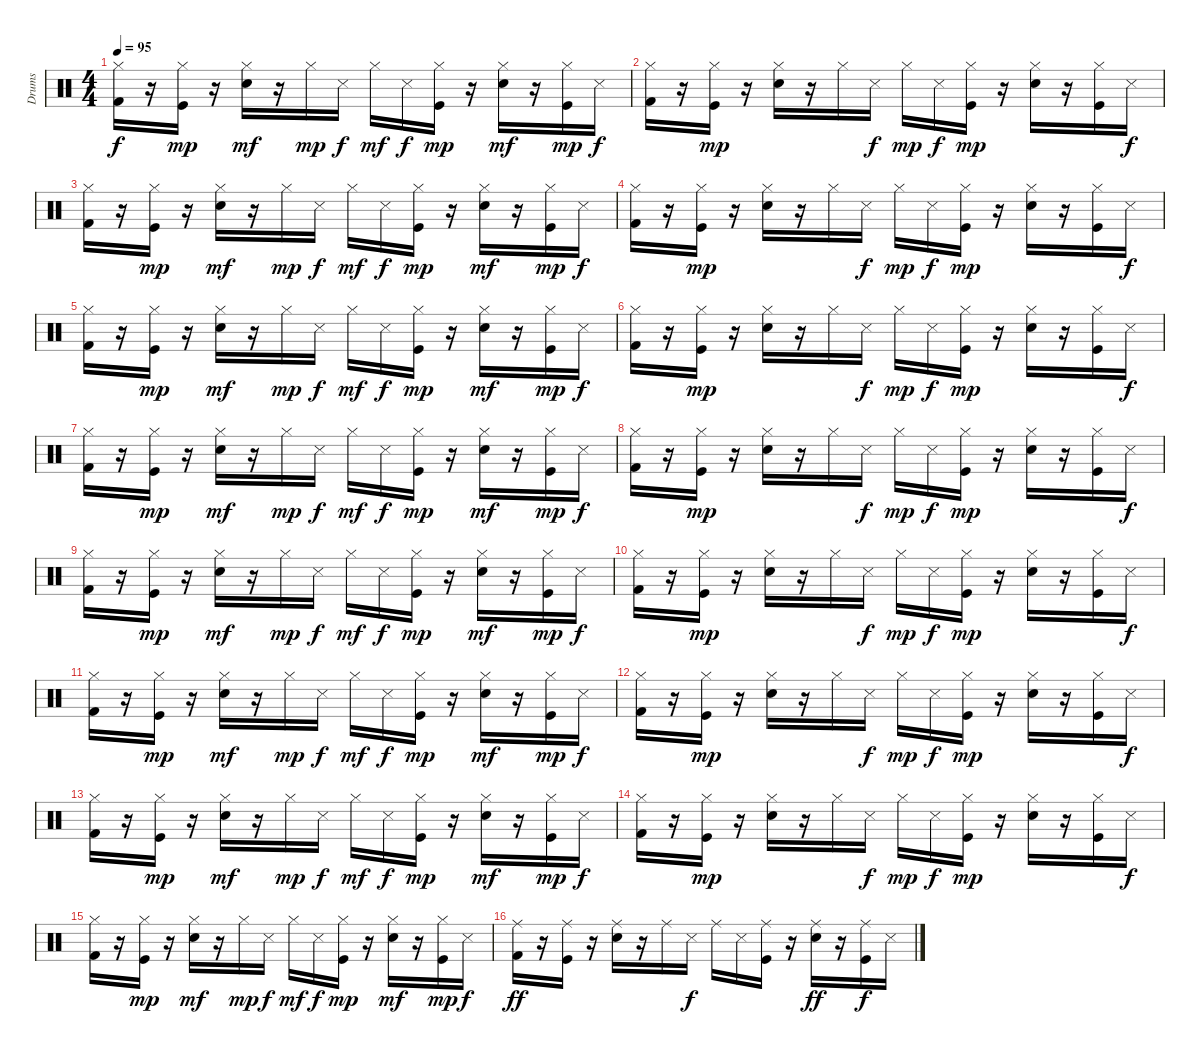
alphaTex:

\track ("Drums" "Drums") {instrument percussion}
\staff {score}
\articulation defaults
\ts (4 4)
\tempo 95
\clef neutral
\ks c
("Kick (hit) 2" "Hi-Hat (closed)").16{dy f} r.16 ("Kick (hit)" "Hi-Hat (closed)").16{dy mp} r.16 ("Snare (hit) 2" "Hi-Hat (closed)").16{dy mf} r.16 "Hi-Hat (closed)".16{dy mp} "Snare (side stick) 3".16{dy f} "Hi-Hat (closed)".16{dy mf} "Snare (side stick) 3".16{dy f} ("Kick (hit)" "Hi-Hat (closed)").16{dy mp} r.16 ("Snare (hit) 2" "Hi-Hat (closed)").16{dy mf} r.16 ("Kick (hit)" "Hi-Hat (closed)").16{dy mp} "Snare (side stick) 3".16{dy f} |
("Kick (hit) 2" "Hi-Hat (closed)").16 r.16 ("Kick (hit)" "Hi-Hat (closed)").16{dy mp} r.16 ("Snare (hit) 2" "Hi-Hat (closed)").16 r.16 "Hi-Hat (closed)".16 "Snare (side stick) 3".16{dy f} "Hi-Hat (closed)".16{dy mp} "Snare (side stick) 3".16{dy f} ("Kick (hit)" "Hi-Hat (closed)").16{dy mp} r.16 ("Snare (hit) 2" "Hi-Hat (closed)").16 r.16 ("Kick (hit)" "Hi-Hat (closed)").16 "Snare (side stick) 3".16{dy f} |
("Kick (hit) 2" "Hi-Hat (closed)").16 r.16 ("Kick (hit)" "Hi-Hat (closed)").16{dy mp} r.16 ("Snare (hit) 2" "Hi-Hat (closed)").16{dy mf} r.16 "Hi-Hat (closed)".16{dy mp} "Snare (side stick) 3".16{dy f} "Hi-Hat (closed)".16{dy mf} "Snare (side stick) 3".16{dy f} ("Kick (hit)" "Hi-Hat (closed)").16{dy mp} r.16 ("Snare (hit) 2" "Hi-Hat (closed)").16{dy mf} r.16 ("Kick (hit)" "Hi-Hat (closed)").16{dy mp} "Snare (side stick) 3".16{dy f} |
("Kick (hit) 2" "Hi-Hat (closed)").16 r.16 ("Kick (hit)" "Hi-Hat (closed)").16{dy mp} r.16 ("Snare (hit) 2" "Hi-Hat (closed)").16 r.16 "Hi-Hat (closed)".16 "Snare (side stick) 3".16{dy f} "Hi-Hat (closed)".16{dy mp} "Snare (side stick) 3".16{dy f} ("Kick (hit)" "Hi-Hat (closed)").16{dy mp} r.16 ("Snare (hit) 2" "Hi-Hat (closed)").16 r.16 ("Kick (hit)" "Hi-Hat (closed)").16 "Snare (side stick) 3".16{dy f} |
("Kick (hit) 2" "Hi-Hat (closed)").16 r.16 ("Kick (hit)" "Hi-Hat (closed)").16{dy mp} r.16 ("Snare (hit) 2" "Hi-Hat (closed)").16{dy mf} r.16 "Hi-Hat (closed)".16{dy mp} "Snare (side stick) 3".16{dy f} "Hi-Hat (closed)".16{dy mf} "Snare (side stick) 3".16{dy f} ("Kick (hit)" "Hi-Hat (closed)").16{dy mp} r.16 ("Snare (hit) 2" "Hi-Hat (closed)").16{dy mf} r.16 ("Kick (hit)" "Hi-Hat (closed)").16{dy mp} "Snare (side stick) 3".16{dy f} |
("Kick (hit) 2" "Hi-Hat (closed)").16 r.16 ("Kick (hit)" "Hi-Hat (closed)").16{dy mp} r.16 ("Snare (hit) 2" "Hi-Hat (closed)").16 r.16 "Hi-Hat (closed)".16 "Snare (side stick) 3".16{dy f} "Hi-Hat (closed)".16{dy mp} "Snare (side stick) 3".16{dy f} ("Kick (hit)" "Hi-Hat (closed)").16{dy mp} r.16 ("Snare (hit) 2" "Hi-Hat (closed)").16 r.16 ("Kick (hit)" "Hi-Hat (closed)").16 "Snare (side stick) 3".16{dy f} |
("Kick (hit) 2" "Hi-Hat (closed)").16 r.16 ("Kick (hit)" "Hi-Hat (closed)").16{dy mp} r.16 ("Snare (hit) 2" "Hi-Hat (closed)").16{dy mf} r.16 "Hi-Hat (closed)".16{dy mp} "Snare (side stick) 3".16{dy f} "Hi-Hat (closed)".16{dy mf} "Snare (side stick) 3".16{dy f} ("Kick (hit)" "Hi-Hat (closed)").16{dy mp} r.16 ("Snare (hit) 2" "Hi-Hat (closed)").16{dy mf} r.16 ("Kick (hit)" "Hi-Hat (closed)").16{dy mp} "Snare (side stick) 3".16{dy f} |
("Kick (hit) 2" "Hi-Hat (closed)").16 r.16 ("Kick (hit)" "Hi-Hat (closed)").16{dy mp} r.16 ("Snare (hit) 2" "Hi-Hat (closed)").16 r.16 "Hi-Hat (closed)".16 "Snare (side stick) 3".16{dy f} "Hi-Hat (closed)".16{dy mp} "Snare (side stick) 3".16{dy f} ("Kick (hit)" "Hi-Hat (closed)").16{dy mp} r.16 ("Snare (hit) 2" "Hi-Hat (closed)").16 r.16 ("Kick (hit)" "Hi-Hat (closed)").16 "Snare (side stick) 3".16{dy f} |
("Kick (hit) 2" "Hi-Hat (closed)").16 r.16 ("Kick (hit)" "Hi-Hat (closed)").16{dy mp} r.16 ("Snare (hit) 2" "Hi-Hat (closed)").16{dy mf} r.16 "Hi-Hat (closed)".16{dy mp} "Snare (side stick) 3".16{dy f} "Hi-Hat (closed)".16{dy mf} "Snare (side stick) 3".16{dy f} ("Kick (hit)" "Hi-Hat (closed)").16{dy mp} r.16 ("Snare (hit) 2" "Hi-Hat (closed)").16{dy mf} r.16 ("Kick (hit)" "Hi-Hat (closed)").16{dy mp} "Snare (side stick) 3".16{dy f} |
("Kick (hit) 2" "Hi-Hat (closed)").16 r.16 ("Kick (hit)" "Hi-Hat (closed)").16{dy mp} r.16 ("Snare (hit) 2" "Hi-Hat (closed)").16 r.16 "Hi-Hat (closed)".16 "Snare (side stick) 3".16{dy f} "Hi-Hat (closed)".16{dy mp} "Snare (side stick) 3".16{dy f} ("Kick (hit)" "Hi-Hat (closed)").16{dy mp} r.16 ("Snare (hit) 2" "Hi-Hat (closed)").16 r.16 ("Kick (hit)" "Hi-Hat (closed)").16 "Snare (side stick) 3".16{dy f} |
("Kick (hit) 2" "Hi-Hat (closed)").16 r.16 ("Kick (hit)" "Hi-Hat (closed)").16{dy mp} r.16 ("Snare (hit) 2" "Hi-Hat (closed)").16{dy mf} r.16 "Hi-Hat (closed)".16{dy mp} "Snare (side stick) 3".16{dy f} "Hi-Hat (closed)".16{dy mf} "Snare (side stick) 3".16{dy f} ("Kick (hit)" "Hi-Hat (closed)").16{dy mp} r.16 ("Snare (hit) 2" "Hi-Hat (closed)").16{dy mf} r.16 ("Kick (hit)" "Hi-Hat (closed)").16{dy mp} "Snare (side stick) 3".16{dy f} |
("Kick (hit) 2" "Hi-Hat (closed)").16 r.16 ("Kick (hit)" "Hi-Hat (closed)").16{dy mp} r.16 ("Snare (hit) 2" "Hi-Hat (closed)").16 r.16 "Hi-Hat (closed)".16 "Snare (side stick) 3".16{dy f} "Hi-Hat (closed)".16{dy mp} "Snare (side stick) 3".16{dy f} ("Kick (hit)" "Hi-Hat (closed)").16{dy mp} r.16 ("Snare (hit) 2" "Hi-Hat (closed)").16 r.16 ("Kick (hit)" "Hi-Hat (closed)").16 "Snare (side stick) 3".16{dy f} |
("Kick (hit) 2" "Hi-Hat (closed)").16 r.16 ("Kick (hit)" "Hi-Hat (closed)").16{dy mp} r.16 ("Snare (hit) 2" "Hi-Hat (closed)").16{dy mf} r.16 "Hi-Hat (closed)".16{dy mp} "Snare (side stick) 3".16{dy f} "Hi-Hat (closed)".16{dy mf} "Snare (side stick) 3".16{dy f} ("Kick (hit)" "Hi-Hat (closed)").16{dy mp} r.16 ("Snare (hit) 2" "Hi-Hat (closed)").16{dy mf} r.16 ("Kick (hit)" "Hi-Hat (closed)").16{dy mp} "Snare (side stick) 3".16{dy f} |
("Kick (hit) 2" "Hi-Hat (closed)").16 r.16 ("Kick (hit)" "Hi-Hat (closed)").16{dy mp} r.16 ("Snare (hit) 2" "Hi-Hat (closed)").16 r.16 "Hi-Hat (closed)".16 "Snare (side stick) 3".16{dy f} "Hi-Hat (closed)".16{dy mp} "Snare (side stick) 3".16{dy f} ("Kick (hit)" "Hi-Hat (closed)").16{dy mp} r.16 ("Snare (hit) 2" "Hi-Hat (closed)").16 r.16 ("Kick (hit)" "Hi-Hat (closed)").16 "Snare (side stick) 3".16{dy f} |
("Kick (hit) 2" "Hi-Hat (closed)").16 r.16 ("Kick (hit)" "Hi-Hat (closed)").16{dy mp} r.16 ("Snare (hit) 2" "Hi-Hat (closed)").16{dy mf} r.16 "Hi-Hat (closed)".16{dy mp} "Snare (side stick) 3".16{dy f} "Hi-Hat (closed)".16{dy mf} "Snare (side stick) 3".16{dy f} ("Kick (hit)" "Hi-Hat (closed)").16{dy mp} r.16 ("Snare (hit) 2" "Hi-Hat (closed)").16{dy mf} r.16 ("Kick (hit)" "Hi-Hat (closed)").16{dy mp} "Snare (side stick) 3".16{dy f} |
("Kick (hit) 2" "Ride (middle)").16{dy ff} r.16 ("Kick (hit)" "Ride (middle)").16 r.16 ("Snare (hit) 2" "Ride (middle)").16 r.16 "Ride (middle)".16 "Snare (side stick) 3".16{dy f} "Ride (middle)".16 "Snare (side stick) 3".16 ("Kick (hit)" "Ride (middle)").16 r.16 ("Snare (hit) 2" "Ride (middle)").16{dy ff} r.16 ("Kick (hit)" "Ride (middle)").16{dy f} "Snare (side stick) 3".16
